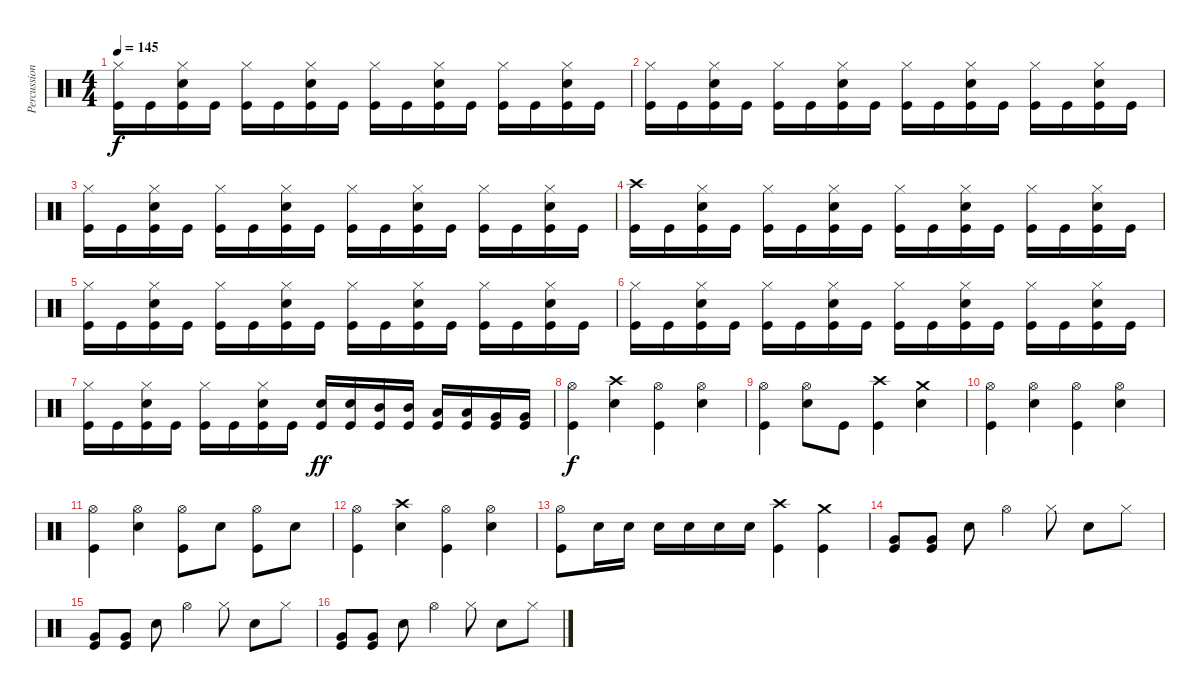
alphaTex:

\track ("Percussions" "Percussion") {instrument percussion}
\staff {score}
\articulation defaults
\ts (4 4)
\tempo 145
\clef neutral
\ks c
("Hi-Hat (closed)" "Kick (hit)").16{dy f} "Kick (hit)".16 ("Hi-Hat (closed)" "Snare (hit) 2" "Kick (hit)").16 "Kick (hit)".16 ("Hi-Hat (closed)" "Kick (hit)").16 "Kick (hit)".16 ("Hi-Hat (closed)" "Snare (hit) 2" "Kick (hit)").16 "Kick (hit)".16 ("Hi-Hat (closed)" "Kick (hit)").16 "Kick (hit)".16 ("Hi-Hat (closed)" "Snare (hit) 2" "Kick (hit)").16 "Kick (hit)".16 ("Hi-Hat (closed)" "Kick (hit)").16 "Kick (hit)".16 ("Hi-Hat (closed)" "Snare (hit) 2" "Kick (hit)").16 "Kick (hit)".16 |
("Hi-Hat (closed)" "Kick (hit)").16 "Kick (hit)".16 ("Hi-Hat (closed)" "Snare (hit) 2" "Kick (hit)").16 "Kick (hit)".16 ("Hi-Hat (closed)" "Kick (hit)").16 "Kick (hit)".16 ("Hi-Hat (closed)" "Snare (hit) 2" "Kick (hit)").16 "Kick (hit)".16 ("Hi-Hat (closed)" "Kick (hit)").16 "Kick (hit)".16 ("Hi-Hat (closed)" "Snare (hit) 2" "Kick (hit)").16 "Kick (hit)".16 ("Hi-Hat (closed)" "Kick (hit)").16 "Kick (hit)".16 ("Hi-Hat (closed)" "Snare (hit) 2" "Kick (hit)").16 "Kick (hit)".16 |
("Hi-Hat (closed)" "Kick (hit)").16 "Kick (hit)".16 ("Hi-Hat (closed)" "Snare (hit) 2" "Kick (hit)").16 "Kick (hit)".16 ("Hi-Hat (closed)" "Kick (hit)").16 "Kick (hit)".16 ("Hi-Hat (closed)" "Snare (hit) 2" "Kick (hit)").16 "Kick (hit)".16 ("Hi-Hat (closed)" "Kick (hit)").16 "Kick (hit)".16 ("Hi-Hat (closed)" "Snare (hit) 2" "Kick (hit)").16 "Kick (hit)".16 ("Hi-Hat (closed)" "Kick (hit)").16 "Kick (hit)".16 ("Hi-Hat (closed)" "Snare (hit) 2" "Kick (hit)").16 "Kick (hit)".16 |
("Crash high (hit)" "Kick (hit)").16 "Kick (hit)".16 ("Hi-Hat (closed)" "Snare (hit) 2" "Kick (hit)").16 "Kick (hit)".16 ("Hi-Hat (closed)" "Kick (hit)").16 "Kick (hit)".16 ("Hi-Hat (closed)" "Snare (hit) 2" "Kick (hit)").16 "Kick (hit)".16 ("Hi-Hat (closed)" "Kick (hit)").16 "Kick (hit)".16 ("Hi-Hat (closed)" "Snare (hit) 2" "Kick (hit)").16 "Kick (hit)".16 ("Hi-Hat (closed)" "Kick (hit)").16 "Kick (hit)".16 ("Hi-Hat (closed)" "Snare (hit) 2" "Kick (hit)").16 "Kick (hit)".16 |
("Hi-Hat (closed)" "Kick (hit)").16 "Kick (hit)".16 ("Hi-Hat (closed)" "Snare (hit) 2" "Kick (hit)").16 "Kick (hit)".16 ("Hi-Hat (closed)" "Kick (hit)").16 "Kick (hit)".16 ("Hi-Hat (closed)" "Snare (hit) 2" "Kick (hit)").16 "Kick (hit)".16 ("Hi-Hat (closed)" "Kick (hit)").16 "Kick (hit)".16 ("Hi-Hat (closed)" "Snare (hit) 2" "Kick (hit)").16 "Kick (hit)".16 ("Hi-Hat (closed)" "Kick (hit)").16 "Kick (hit)".16 ("Hi-Hat (closed)" "Snare (hit) 2" "Kick (hit)").16 "Kick (hit)".16 |
("Hi-Hat (closed)" "Kick (hit)").16 "Kick (hit)".16 ("Hi-Hat (closed)" "Snare (hit) 2" "Kick (hit)").16 "Kick (hit)".16 ("Hi-Hat (closed)" "Kick (hit)").16 "Kick (hit)".16 ("Hi-Hat (closed)" "Snare (hit) 2" "Kick (hit)").16 "Kick (hit)".16 ("Hi-Hat (closed)" "Kick (hit)").16 "Kick (hit)".16 ("Hi-Hat (closed)" "Snare (hit) 2" "Kick (hit)").16 "Kick (hit)".16 ("Hi-Hat (closed)" "Kick (hit)").16 "Kick (hit)".16 ("Hi-Hat (closed)" "Snare (hit) 2" "Kick (hit)").16 "Kick (hit)".16 |
("Hi-Hat (closed)" "Kick (hit)").16 "Kick (hit)".16 ("Hi-Hat (closed)" "Snare (hit) 2" "Kick (hit)").16 "Kick (hit)".16 ("Hi-Hat (closed)" "Kick (hit)").16 "Kick (hit)".16 ("Hi-Hat (closed)" "Snare (hit) 2" "Kick (hit)").16 "Kick (hit)".16 ("Snare (hit) 2" "Kick (hit)").16{dy ff} ("Snare (hit) 2" "Kick (hit)").16 ("Mid Tom (hit)" "Kick (hit)").16 ("Mid Tom (hit)" "Kick (hit)").16 ("Low Tom (hit)" "Kick (hit)").16 ("Low Tom (hit)" "Kick (hit)").16 ("Very Low Tom (hit)" "Kick (hit)").16 ("Very Low Tom (hit)" "Kick (hit)").16 |
("Hi-Hat (open)" "Kick (hit)").4{dy f} ("Crash high (hit)" "Snare (hit) 2").4 ("Hi-Hat (open)" "Kick (hit)").4 ("Hi-Hat (open)" "Snare (hit) 2").4 |
("Hi-Hat (open)" "Kick (hit)").4 ("Hi-Hat (open)" "Snare (hit) 2").8 "Kick (hit)".8 ("Crash high (hit)" "Kick (hit)").4 ("Crash medium (hit)" "Snare (hit) 2").4 |
("Hi-Hat (open)" "Kick (hit)").4 ("Hi-Hat (open)" "Snare (hit) 2").4 ("Hi-Hat (open)" "Kick (hit)").4 ("Hi-Hat (open)" "Snare (hit) 2").4 |
("Hi-Hat (open)" "Kick (hit)").4 ("Hi-Hat (open)" "Snare (hit) 2").4 ("Hi-Hat (open)" "Kick (hit)").8 "Snare (hit) 2".8 ("Hi-Hat (open)" "Kick (hit)").8 "Snare (hit) 2".8 |
("Hi-Hat (open)" "Kick (hit)").4 ("Crash high (hit)" "Snare (hit) 2").4 ("Hi-Hat (open)" "Kick (hit)").4 ("Hi-Hat (open)" "Snare (hit) 2").4 |
("Hi-Hat (open)" "Kick (hit)").8 "Snare (hit) 2".16 "Snare (hit) 2".16 "Snare (hit) 2".16 "Snare (hit) 2".16 "Snare (hit) 2".16 "Snare (hit) 2".16 ("Crash high (hit)" "Kick (hit)").4 ("Crash medium (hit)" "Kick (hit)").4 |
("Very Low Tom (hit)" "Kick (hit)").8 ("Very Low Tom (hit)" "Kick (hit)").8 "Snare (hit) 2".8 "Hi-Hat (open)".4 "Hi-Hat (closed)".8 "Snare (hit) 2".8 "Hi-Hat (closed)".8 |
("Very Low Tom (hit)" "Kick (hit)").8 ("Very Low Tom (hit)" "Kick (hit)").8 "Snare (hit) 2".8 "Hi-Hat (open)".4 "Hi-Hat (closed)".8 "Snare (hit) 2".8 "Hi-Hat (closed)".8 |
("Very Low Tom (hit)" "Kick (hit)").8 ("Very Low Tom (hit)" "Kick (hit)").8 "Snare (hit) 2".8 "Hi-Hat (open)".4 "Hi-Hat (closed)".8 "Snare (hit) 2".8 "Hi-Hat (closed)".8
